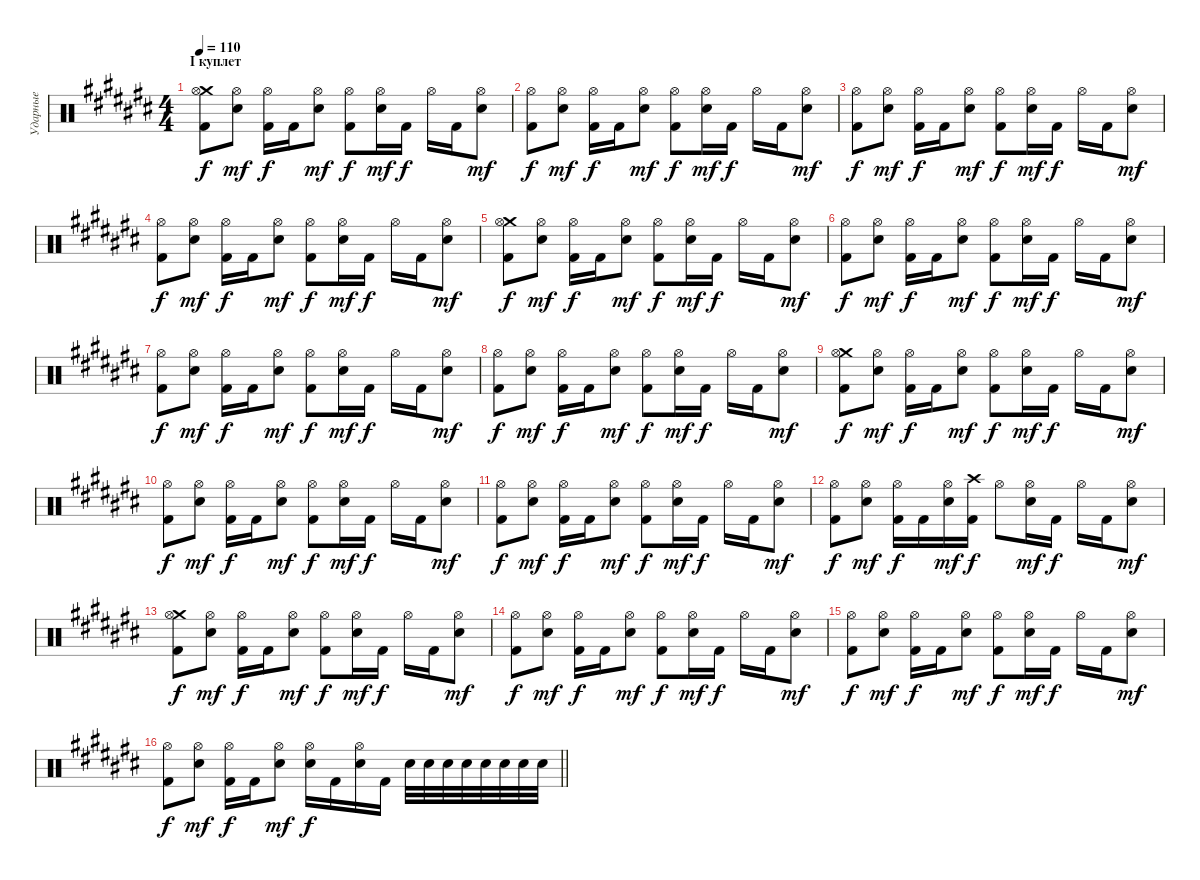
\track ("Ударные" "Ударные") {instrument percussion}
\staff {score}
\articulation defaults
\ts (4 4)
\section ("" "I куплет")
\tempo 110
\clef neutral
\ks a#minor
("Crash medium (hit)" "Kick (hit) 2" "Hi-Hat (open)").8{dy f} ("Electric Snare (hit)" "Hi-Hat (open)").8{dy mf} ("Kick (hit) 2" "Hi-Hat (open)").16{dy f} "Kick (hit) 2".16 ("Electric Snare (hit)" "Hi-Hat (open)").8{dy mf} ("Kick (hit) 2" "Hi-Hat (open)").8{dy f} ("Electric Snare (hit)" "Hi-Hat (open)").16{dy mf} "Kick (hit) 2".16{dy f} "Hi-Hat (open)".16 "Kick (hit) 2".16 ("Electric Snare (hit)" "Hi-Hat (open)").8{dy mf} |
("Kick (hit) 2" "Hi-Hat (open)").8{dy f} ("Electric Snare (hit)" "Hi-Hat (open)").8{dy mf} ("Kick (hit) 2" "Hi-Hat (open)").16{dy f} "Kick (hit) 2".16 ("Electric Snare (hit)" "Hi-Hat (open)").8{dy mf} ("Kick (hit) 2" "Hi-Hat (open)").8{dy f} ("Electric Snare (hit)" "Hi-Hat (open)").16{dy mf} "Kick (hit) 2".16{dy f} "Hi-Hat (open)".16 "Kick (hit) 2".16 ("Electric Snare (hit)" "Hi-Hat (open)").8{dy mf} |
("Kick (hit) 2" "Hi-Hat (open)").8{dy f} ("Electric Snare (hit)" "Hi-Hat (open)").8{dy mf} ("Kick (hit) 2" "Hi-Hat (open)").16{dy f} "Kick (hit) 2".16 ("Electric Snare (hit)" "Hi-Hat (open)").8{dy mf} ("Kick (hit) 2" "Hi-Hat (open)").8{dy f} ("Electric Snare (hit)" "Hi-Hat (open)").16{dy mf} "Kick (hit) 2".16{dy f} "Hi-Hat (open)".16 "Kick (hit) 2".16 ("Electric Snare (hit)" "Hi-Hat (open)").8{dy mf} |
("Kick (hit) 2" "Hi-Hat (open)").8{dy f} ("Electric Snare (hit)" "Hi-Hat (open)").8{dy mf} ("Kick (hit) 2" "Hi-Hat (open)").16{dy f} "Kick (hit) 2".16 ("Electric Snare (hit)" "Hi-Hat (open)").8{dy mf} ("Kick (hit) 2" "Hi-Hat (open)").8{dy f} ("Electric Snare (hit)" "Hi-Hat (open)").16{dy mf} "Kick (hit) 2".16{dy f} "Hi-Hat (open)".16 "Kick (hit) 2".16 ("Electric Snare (hit)" "Hi-Hat (open)").8{dy mf} |
("Crash medium (hit)" "Kick (hit) 2" "Hi-Hat (open)").8{dy f} ("Electric Snare (hit)" "Hi-Hat (open)").8{dy mf} ("Kick (hit) 2" "Hi-Hat (open)").16{dy f} "Kick (hit) 2".16 ("Electric Snare (hit)" "Hi-Hat (open)").8{dy mf} ("Kick (hit) 2" "Hi-Hat (open)").8{dy f} ("Electric Snare (hit)" "Hi-Hat (open)").16{dy mf} "Kick (hit) 2".16{dy f} "Hi-Hat (open)".16 "Kick (hit) 2".16 ("Electric Snare (hit)" "Hi-Hat (open)").8{dy mf} |
("Kick (hit) 2" "Hi-Hat (open)").8{dy f} ("Electric Snare (hit)" "Hi-Hat (open)").8{dy mf} ("Kick (hit) 2" "Hi-Hat (open)").16{dy f} "Kick (hit) 2".16 ("Electric Snare (hit)" "Hi-Hat (open)").8{dy mf} ("Kick (hit) 2" "Hi-Hat (open)").8{dy f} ("Electric Snare (hit)" "Hi-Hat (open)").16{dy mf} "Kick (hit) 2".16{dy f} "Hi-Hat (open)".16 "Kick (hit) 2".16 ("Electric Snare (hit)" "Hi-Hat (open)").8{dy mf} |
("Kick (hit) 2" "Hi-Hat (open)").8{dy f} ("Electric Snare (hit)" "Hi-Hat (open)").8{dy mf} ("Kick (hit) 2" "Hi-Hat (open)").16{dy f} "Kick (hit) 2".16 ("Electric Snare (hit)" "Hi-Hat (open)").8{dy mf} ("Kick (hit) 2" "Hi-Hat (open)").8{dy f} ("Electric Snare (hit)" "Hi-Hat (open)").16{dy mf} "Kick (hit) 2".16{dy f} "Hi-Hat (open)".16 "Kick (hit) 2".16 ("Electric Snare (hit)" "Hi-Hat (open)").8{dy mf} |
("Kick (hit) 2" "Hi-Hat (open)").8{dy f} ("Electric Snare (hit)" "Hi-Hat (open)").8{dy mf} ("Kick (hit) 2" "Hi-Hat (open)").16{dy f} "Kick (hit) 2".16 ("Electric Snare (hit)" "Hi-Hat (open)").8{dy mf} ("Kick (hit) 2" "Hi-Hat (open)").8{dy f} ("Electric Snare (hit)" "Hi-Hat (open)").16{dy mf} "Kick (hit) 2".16{dy f} "Hi-Hat (open)".16 "Kick (hit) 2".16 ("Electric Snare (hit)" "Hi-Hat (open)").8{dy mf} |
("Crash medium (hit)" "Kick (hit) 2" "Hi-Hat (open)").8{dy f} ("Electric Snare (hit)" "Hi-Hat (open)").8{dy mf} ("Kick (hit) 2" "Hi-Hat (open)").16{dy f} "Kick (hit) 2".16 ("Electric Snare (hit)" "Hi-Hat (open)").8{dy mf} ("Kick (hit) 2" "Hi-Hat (open)").8{dy f} ("Electric Snare (hit)" "Hi-Hat (open)").16{dy mf} "Kick (hit) 2".16{dy f} "Hi-Hat (open)".16 "Kick (hit) 2".16 ("Electric Snare (hit)" "Hi-Hat (open)").8{dy mf} |
("Kick (hit) 2" "Hi-Hat (open)").8{dy f} ("Electric Snare (hit)" "Hi-Hat (open)").8{dy mf} ("Kick (hit) 2" "Hi-Hat (open)").16{dy f} "Kick (hit) 2".16 ("Electric Snare (hit)" "Hi-Hat (open)").8{dy mf} ("Kick (hit) 2" "Hi-Hat (open)").8{dy f} ("Electric Snare (hit)" "Hi-Hat (open)").16{dy mf} "Kick (hit) 2".16{dy f} "Hi-Hat (open)".16 "Kick (hit) 2".16 ("Electric Snare (hit)" "Hi-Hat (open)").8{dy mf} |
("Kick (hit) 2" "Hi-Hat (open)").8{dy f} ("Electric Snare (hit)" "Hi-Hat (open)").8{dy mf} ("Kick (hit) 2" "Hi-Hat (open)").16{dy f} "Kick (hit) 2".16 ("Electric Snare (hit)" "Hi-Hat (open)").8{dy mf} ("Kick (hit) 2" "Hi-Hat (open)").8{dy f} ("Electric Snare (hit)" "Hi-Hat (open)").16{dy mf} "Kick (hit) 2".16{dy f} "Hi-Hat (open)".16 "Kick (hit) 2".16 ("Electric Snare (hit)" "Hi-Hat (open)").8{dy mf} |
("Kick (hit) 2" "Hi-Hat (open)").8{dy f} ("Electric Snare (hit)" "Hi-Hat (open)").8{dy mf} ("Kick (hit) 2" "Hi-Hat (open)").16{dy f} "Kick (hit) 2".16 ("Electric Snare (hit)" "Hi-Hat (open)").16{dy mf} ("Crash high (hit)" "Kick (hit) 2").16{dy f} "Hi-Hat (open)".8 ("Electric Snare (hit)" "Hi-Hat (open)").16{dy mf} "Kick (hit) 2".16{dy f} "Hi-Hat (open)".16 "Kick (hit) 2".16 ("Electric Snare (hit)" "Hi-Hat (open)").8{dy mf} |
("Crash medium (hit)" "Kick (hit) 2" "Hi-Hat (open)").8{dy f} ("Electric Snare (hit)" "Hi-Hat (open)").8{dy mf} ("Kick (hit) 2" "Hi-Hat (open)").16{dy f} "Kick (hit) 2".16 ("Electric Snare (hit)" "Hi-Hat (open)").8{dy mf} ("Kick (hit) 2" "Hi-Hat (open)").8{dy f} ("Electric Snare (hit)" "Hi-Hat (open)").16{dy mf} "Kick (hit) 2".16{dy f} "Hi-Hat (open)".16 "Kick (hit) 2".16 ("Electric Snare (hit)" "Hi-Hat (open)").8{dy mf} |
("Kick (hit) 2" "Hi-Hat (open)").8{dy f} ("Electric Snare (hit)" "Hi-Hat (open)").8{dy mf} ("Kick (hit) 2" "Hi-Hat (open)").16{dy f} "Kick (hit) 2".16 ("Electric Snare (hit)" "Hi-Hat (open)").8{dy mf} ("Kick (hit) 2" "Hi-Hat (open)").8{dy f} ("Electric Snare (hit)" "Hi-Hat (open)").16{dy mf} "Kick (hit) 2".16{dy f} "Hi-Hat (open)".16 "Kick (hit) 2".16 ("Electric Snare (hit)" "Hi-Hat (open)").8{dy mf} |
("Kick (hit) 2" "Hi-Hat (open)").8{dy f} ("Electric Snare (hit)" "Hi-Hat (open)").8{dy mf} ("Kick (hit) 2" "Hi-Hat (open)").16{dy f} "Kick (hit) 2".16 ("Electric Snare (hit)" "Hi-Hat (open)").8{dy mf} ("Kick (hit) 2" "Hi-Hat (open)").8{dy f} ("Electric Snare (hit)" "Hi-Hat (open)").16{dy mf} "Kick (hit) 2".16{dy f} "Hi-Hat (open)".16 "Kick (hit) 2".16 ("Electric Snare (hit)" "Hi-Hat (open)").8{dy mf} |
\barLineRight lightlight
("Kick (hit) 2" "Hi-Hat (open)").8{dy f} ("Electric Snare (hit)" "Hi-Hat (open)").8{dy mf} ("Kick (hit) 2" "Hi-Hat (open)").16{dy f} "Kick (hit) 2".16 ("Electric Snare (hit)" "Hi-Hat (open)").8{dy mf} ("Electric Snare (hit)" "Hi-Hat (open)").16{dy f} "Kick (hit) 2".16 ("Electric Snare (hit)" "Hi-Hat (open)").16 "Kick (hit) 2".16 "Electric Snare (hit)".32 "Electric Snare (hit)".32 "Electric Snare (hit)".32 "Electric Snare (hit)".32 "Electric Snare (hit)".32 "Electric Snare (hit)".32 "Electric Snare (hit)".32 "Electric Snare (hit)".32
